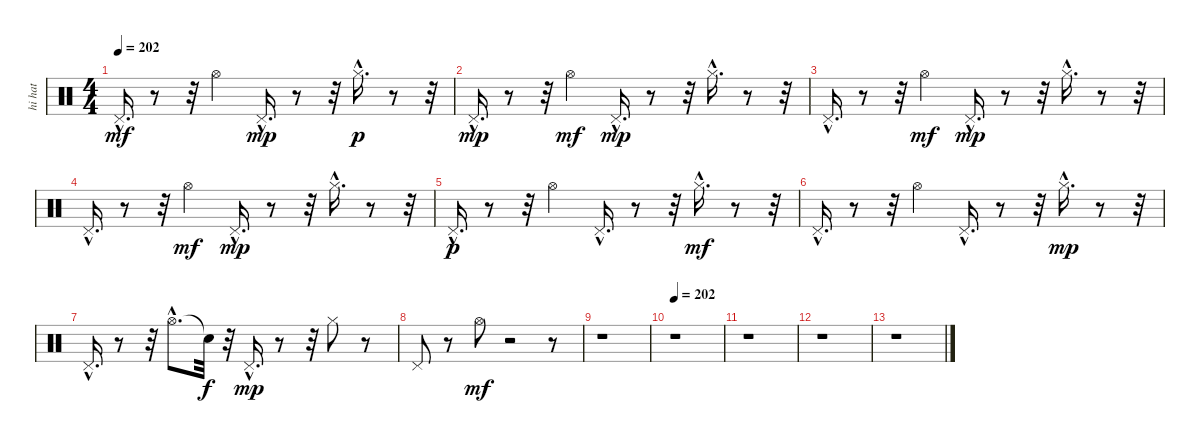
\track ("hi hat" "hi hat") {instrument percussion}
\staff {score}
\articulation defaults
\ts (4 4)
\tempo 202
\clef neutral
\ks c "Pedal Hi-Hat (hit)"{hac}.16{d dy mf}
r.8 r.32 "Hi-Hat (open)".4 "Pedal Hi-Hat (hit)"{hac}.16{d dy mp} r.8 r.32 "Hi-Hat (closed)"{hac}.16{d dy p} r.8 r.32 |
"Pedal Hi-Hat (hit)"{hac}.16{d dy mp} r.8 r.32 "Hi-Hat (open)".4{dy mf} "Pedal Hi-Hat (hit)"{hac}.16{d dy mp} r.8 r.32 "Hi-Hat (closed)"{hac}.16{d} r.8 r.32 |
"Pedal Hi-Hat (hit)"{hac}.16{d} r.8 r.32 "Hi-Hat (open)".4{dy mf} "Pedal Hi-Hat (hit)"{hac}.16{d dy mp} r.8 r.32 "Hi-Hat (closed)"{hac}.16{d} r.8 r.32 |
"Pedal Hi-Hat (hit)"{hac}.16{d} r.8 r.32 "Hi-Hat (open)".4{dy mf} "Pedal Hi-Hat (hit)"{hac}.16{d dy mp} r.8 r.32 "Hi-Hat (closed)"{hac}.16{d} r.8 r.32 |
"Pedal Hi-Hat (hit)"{hac}.16{d dy p} r.8 r.32 "Hi-Hat (open)".4 "Pedal Hi-Hat (hit)"{hac}.16{d} r.8 r.32 "Hi-Hat (closed)"{hac}.16{d dy mf} r.8 r.32 |
"Pedal Hi-Hat (hit)"{hac}.16{d} r.8 r.32 "Hi-Hat (open)".4 "Pedal Hi-Hat (hit)"{hac}.16{d} r.8 r.32 "Hi-Hat (closed)"{hac}.16{d dy mp} r.8 r.32 |
"Pedal Hi-Hat (hit)"{hac}.16{d} r.8 r.32 "Hi-Hat (open)"{hac}.8{d} "Snare (hit)"{t}.32{dy f} r.32 "Pedal Hi-Hat (hit)"{hac}.16{d dy mp} r.8 r.32 "Hi-Hat (closed)".8 r.8 |
"Pedal Hi-Hat (hit)".8 r.8 "Hi-Hat (open)".8{dy mf} r.2 r.8 |
r.1 |
\tempo 202
r.1 |
r.1 |
r.1 |
r.1
